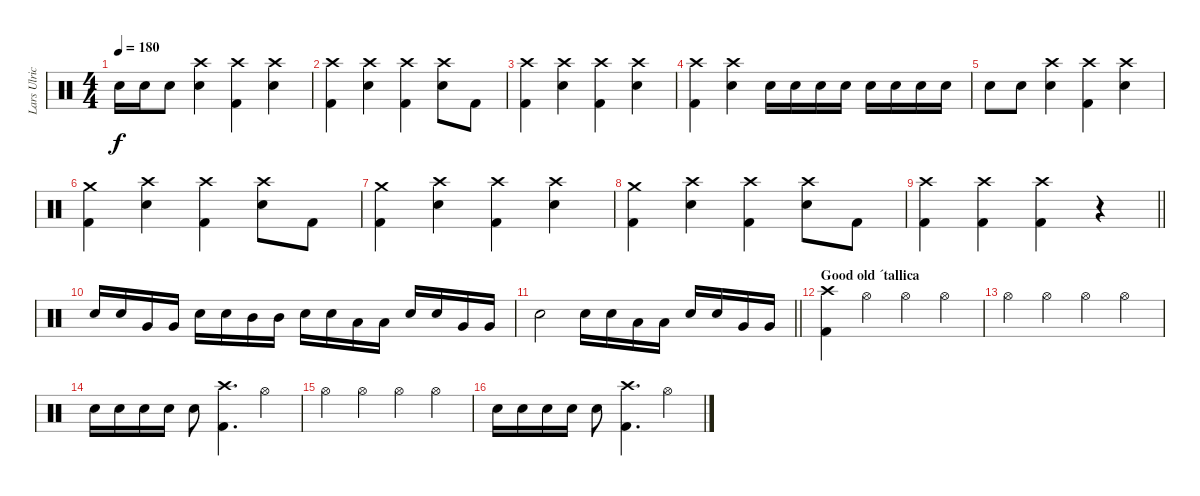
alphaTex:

\track ("Lars Ulrich" "Lars Ulric") {instrument percussion}
\staff {score}
\articulation defaults
\ts (4 4)
\tempo 180
\clef neutral
\ks c "Electric Snare (hit)".16{dy f} "Electric Snare (hit)".16 "Electric Snare (hit)".8
("Crash high (hit)" "Electric Snare (hit)").4 ("Crash high (hit)" "Kick (hit) 2").4 ("Crash high (hit)" "Electric Snare (hit)").4 |
("Crash high (hit)" "Kick (hit) 2").4 ("Crash high (hit)" "Electric Snare (hit)").4 ("Crash high (hit)" "Kick (hit) 2").4 ("Crash high (hit)" "Electric Snare (hit)").8 "Kick (hit) 2".8 |
("Crash high (hit)" "Kick (hit) 2").4 ("Crash high (hit)" "Electric Snare (hit)").4 ("Crash high (hit)" "Kick (hit) 2").4 ("Crash high (hit)" "Electric Snare (hit)").4 |
("Crash high (hit)" "Kick (hit) 2").4 ("Crash high (hit)" "Electric Snare (hit)").4 "Electric Snare (hit)".16 "Electric Snare (hit)".16 "Electric Snare (hit)".16 "Electric Snare (hit)".16 "Electric Snare (hit)".16 "Electric Snare (hit)".16 "Electric Snare (hit)".16 "Electric Snare (hit)".16 |
"Electric Snare (hit)".8 "Electric Snare (hit)".8 ("Crash high (hit)" "Electric Snare (hit)").4 ("Crash high (hit)" "Kick (hit) 2").4 ("Crash high (hit)" "Electric Snare (hit)").4 |
("Crash medium (hit)" "Kick (hit) 2").4 ("Crash high (hit)" "Electric Snare (hit)").4 ("Crash high (hit)" "Kick (hit) 2").4 ("Crash high (hit)" "Electric Snare (hit)").8 "Kick (hit) 2".8 |
("Crash medium (hit)" "Kick (hit) 2").4 ("Crash high (hit)" "Electric Snare (hit)").4 ("Crash high (hit)" "Kick (hit) 2").4 ("Crash high (hit)" "Electric Snare (hit)").4 |
("Crash medium (hit)" "Kick (hit) 2").4 ("Crash high (hit)" "Electric Snare (hit)").4 ("Crash high (hit)" "Kick (hit) 2").4 ("Crash high (hit)" "Electric Snare (hit)").8 "Kick (hit) 2".8 |
\barLineRight lightlight
("Crash high (hit)" "Kick (hit) 2").4 ("Crash high (hit)" "Kick (hit) 2").4 ("Crash high (hit)" "Kick (hit) 2").4 r.4 |
\section ("" "")
"Electric Snare (hit)".16 "Electric Snare (hit)".16 "Very Low Tom (hit)".16 "Very Low Tom (hit)".16 "Electric Snare (hit)".16 "Electric Snare (hit)".16 "Mid Tom (hit)".16 "Mid Tom (hit)".16 "Electric Snare (hit)".16 "Electric Snare (hit)".16 "Low Tom (hit)".16 "Low Tom (hit)".16 "Electric Snare (hit)".16 "Electric Snare (hit)".16 "Very Low Tom (hit)".16 "Very Low Tom (hit)".16 |
\barLineRight lightlight "Electric Snare (hit)".2 "Electric Snare (hit)".16 "Electric Snare (hit)".16 "Low Tom (hit)".16 "Low Tom (hit)".16 "Electric Snare (hit)".16 "Electric Snare (hit)".16 "Very Low Tom (hit)".16 "Very Low Tom (hit)".16
|
\section ("" "Good old ´tallica")
("Crash high (hit)" "Kick (hit) 2").4 "Hi-Hat (open)".4 "Hi-Hat (open)".4 "Hi-Hat (open)".4 |
"Hi-Hat (open)".4 "Hi-Hat (open)".4 "Hi-Hat (open)".4 "Hi-Hat (open)".4 |
"Electric Snare (hit)".16 "Electric Snare (hit)".16 "Electric Snare (hit)".16 "Electric Snare (hit)".16 "Electric Snare (hit)".8 ("Crash high (hit)" "Kick (hit) 2").4{d} "Hi-Hat (open)".4 |
"Hi-Hat (open)".4 "Hi-Hat (open)".4 "Hi-Hat (open)".4 "Hi-Hat (open)".4 |
"Electric Snare (hit)".16 "Electric Snare (hit)".16 "Electric Snare (hit)".16 "Electric Snare (hit)".16 "Electric Snare (hit)".8 ("Crash high (hit)" "Kick (hit) 2").4{d} "Hi-Hat (open)".4
